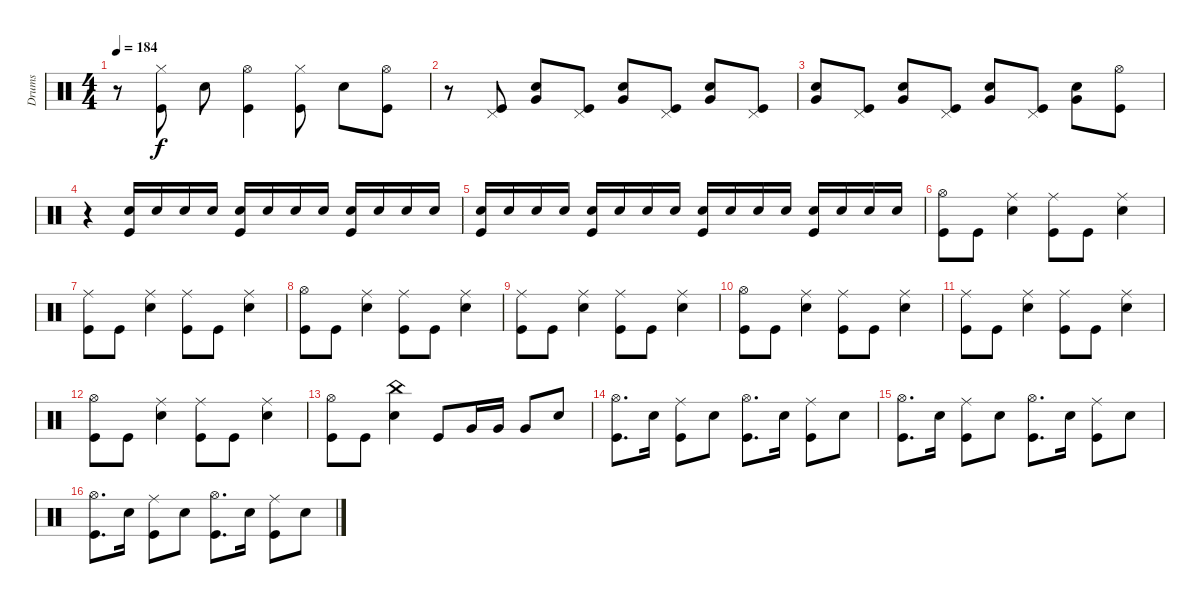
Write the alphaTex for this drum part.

\track (" Drums" " Drums") {instrument percussion}
\staff {score}
\articulation defaults
\ts (4 4)
\tempo 184
\clef neutral
\ks c
r.8{dy f} ("Kick (hit)" "Hi-Hat (closed)").8 "Snare (hit) 2".8 ("Kick (hit)" "Hi-Hat (open)").4 ("Kick (hit)" "Hi-Hat (closed)").8 "Snare (hit) 2".8 ("Kick (hit)" "Hi-Hat (open)").8 |
r.8 ("Kick (hit)" "Pedal Hi-Hat (hit)").8 ("Snare (hit) 2" "Very Low Tom (hit)").8 ("Kick (hit)" "Pedal Hi-Hat (hit)").8 ("Snare (hit) 2" "Very Low Tom (hit)").8 ("Pedal Hi-Hat (hit)" "Kick (hit)").8 ("Snare (hit) 2" "Very Low Tom (hit)").8 ("Kick (hit)" "Pedal Hi-Hat (hit)").8 |
("Snare (hit) 2" "Very Low Tom (hit)").8 ("Kick (hit)" "Pedal Hi-Hat (hit)").8 ("Snare (hit) 2" "Very Low Tom (hit)").8 ("Kick (hit)" "Pedal Hi-Hat (hit)").8 ("Snare (hit) 2" "Very Low Tom (hit)").8 ("Kick (hit)" "Pedal Hi-Hat (hit)").8 ("Snare (hit) 2" "Very Low Tom (hit)").8 ("Kick (hit)" "Hi-Hat (open)").8 |
r.4 ("Kick (hit)" "Snare (hit) 2").16 "Snare (hit) 2".16 "Snare (hit) 2".16 "Snare (hit) 2".16 ("Kick (hit)" "Snare (hit) 2").16 "Snare (hit) 2".16 "Snare (hit) 2".16 "Snare (hit) 2".16 ("Kick (hit)" "Snare (hit) 2").16 "Snare (hit) 2".16 "Snare (hit) 2".16 "Snare (hit) 2".16 |
("Kick (hit)" "Snare (hit) 2").16 "Snare (hit) 2".16 "Snare (hit) 2".16 "Snare (hit) 2".16 ("Kick (hit)" "Snare (hit) 2").16 "Snare (hit) 2".16 "Snare (hit) 2".16 "Snare (hit) 2".16 ("Kick (hit)" "Snare (hit) 2").16 "Snare (hit) 2".16 "Snare (hit) 2".16 "Snare (hit) 2".16 ("Kick (hit)" "Snare (hit) 2").16 "Snare (hit) 2".16 "Snare (hit) 2".16 "Snare (hit) 2".16 |
("Kick (hit)" "Hi-Hat (open)").8 "Kick (hit)".8 ("Snare (hit) 2" "Ride (middle)").4 ("Kick (hit)" "Ride (middle)").8 "Kick (hit)".8 ("Snare (hit) 2" "Ride (middle)").4 |
("Kick (hit)" "Ride (middle)").8 "Kick (hit)".8 ("Snare (hit) 2" "Ride (middle)").4 ("Kick (hit)" "Ride (middle)").8 "Kick (hit)".8 ("Snare (hit) 2" "Ride (middle)").4 |
("Kick (hit)" "Hi-Hat (open)").8 "Kick (hit)".8 ("Snare (hit) 2" "Ride (middle)").4 ("Kick (hit)" "Ride (middle)").8 "Kick (hit)".8 ("Snare (hit) 2" "Ride (middle)").4 |
("Kick (hit)" "Ride (middle)").8 "Kick (hit)".8 ("Snare (hit) 2" "Ride (middle)").4 ("Kick (hit)" "Ride (middle)").8 "Kick (hit)".8 ("Snare (hit) 2" "Ride (middle)").4 |
("Kick (hit)" "Hi-Hat (open)").8 "Kick (hit)".8 ("Snare (hit) 2" "Ride (middle)").4 ("Kick (hit)" "Ride (middle)").8 "Kick (hit)".8 ("Snare (hit) 2" "Ride (middle)").4 |
("Kick (hit)" "Ride (middle)").8 "Kick (hit)".8 ("Snare (hit) 2" "Ride (middle)").4 ("Kick (hit)" "Ride (middle)").8 "Kick (hit)".8 ("Snare (hit) 2" "Ride (middle)").4 |
("Kick (hit)" "Hi-Hat (open)").8 "Kick (hit)".8 ("Snare (hit) 2" "Ride (middle)").4 ("Kick (hit)" "Ride (middle)").8 "Kick (hit)".8 ("Snare (hit) 2" "Ride (middle)").4 |
("Kick (hit)" "Hi-Hat (open)").8 "Kick (hit)".8 ("Snare (hit) 2" "China (hit)").4 "Kick (hit)".8 "Very Low Tom (hit)".16 "Very Low Tom (hit)".16 "Very Low Tom (hit)".8 "Snare (hit) 2".8 |
("Kick (hit)" "Hi-Hat (open)").8{d} "Snare (hit) 2".16 ("Kick (hit)" "Ride (middle)").8 "Snare (hit) 2".8 ("Kick (hit)" "Hi-Hat (open)").8{d} "Snare (hit) 2".16 ("Kick (hit)" "Ride (middle)").8 "Snare (hit) 2".8 |
("Kick (hit)" "Hi-Hat (open)").8{d} "Snare (hit) 2".16 ("Kick (hit)" "Ride (middle)").8 "Snare (hit) 2".8 ("Kick (hit)" "Hi-Hat (open)").8{d} "Snare (hit) 2".16 ("Kick (hit)" "Ride (middle)").8 "Snare (hit) 2".8 |
("Kick (hit)" "Hi-Hat (open)").8{d} "Snare (hit) 2".16 ("Kick (hit)" "Ride (middle)").8 "Snare (hit) 2".8 ("Kick (hit)" "Hi-Hat (open)").8{d} "Snare (hit) 2".16 ("Kick (hit)" "Ride (middle)").8 "Snare (hit) 2".8
